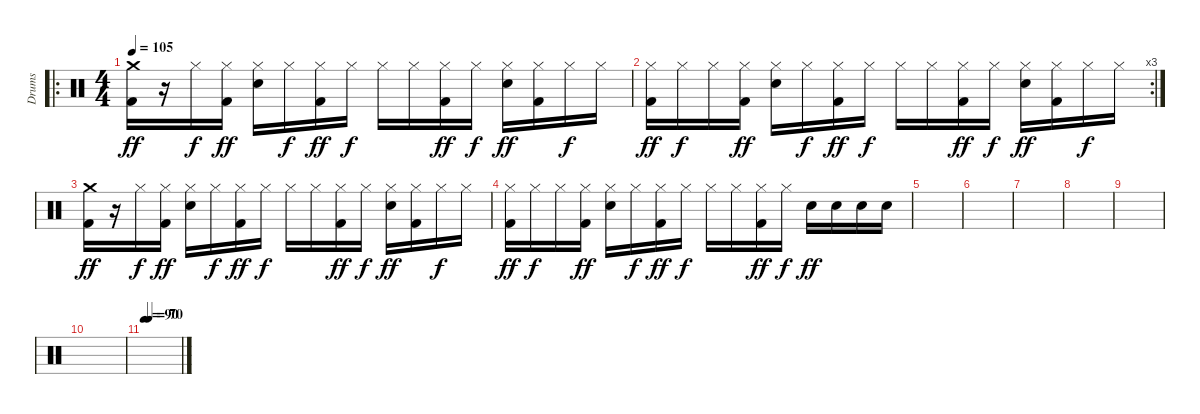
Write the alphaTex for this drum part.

\track ("Drums" "Drums") {instrument percussion}
\staff {score}
\articulation defaults
\ro
\ts (4 4)
\tempo 105
\clef neutral
\ks c
("Crash medium (hit)" "Kick (hit) 2").16{dy ff} r.16 "Hi-Hat (closed)".16{dy f} ("Hi-Hat (closed)" "Kick (hit) 2").16{dy ff} ("Hi-Hat (closed)" "Electric Snare (hit)").16 "Hi-Hat (closed)".16{dy f} ("Hi-Hat (closed)" "Kick (hit) 2").16{dy ff} "Hi-Hat (closed)".16{dy f} "Hi-Hat (closed)".16 "Hi-Hat (closed)".16 ("Hi-Hat (closed)" "Kick (hit) 2").16{dy ff} "Hi-Hat (closed)".16{dy f} ("Hi-Hat (closed)" "Electric Snare (hit)").16{dy ff} ("Hi-Hat (closed)" "Kick (hit) 2").16 "Hi-Hat (closed)".16{dy f} "Hi-Hat (closed)".16 |
\rc 3
("Hi-Hat (closed)" "Kick (hit) 2").16{dy ff} "Hi-Hat (closed)".16{dy f} "Hi-Hat (closed)".16 ("Hi-Hat (closed)" "Kick (hit) 2").16{dy ff} ("Hi-Hat (closed)" "Electric Snare (hit)").16 "Hi-Hat (closed)".16{dy f} ("Hi-Hat (closed)" "Kick (hit) 2").16{dy ff} "Hi-Hat (closed)".16{dy f} "Hi-Hat (closed)".16 "Hi-Hat (closed)".16 ("Hi-Hat (closed)" "Kick (hit) 2").16{dy ff} "Hi-Hat (closed)".16{dy f} ("Hi-Hat (closed)" "Electric Snare (hit)").16{dy ff} ("Hi-Hat (closed)" "Kick (hit) 2").16 "Hi-Hat (closed)".16{dy f} "Hi-Hat (closed)".16 |
("Crash medium (hit)" "Kick (hit) 2").16{dy ff} r.16 "Hi-Hat (closed)".16{dy f} ("Hi-Hat (closed)" "Kick (hit) 2").16{dy ff} ("Hi-Hat (closed)" "Electric Snare (hit)").16 "Hi-Hat (closed)".16{dy f} ("Hi-Hat (closed)" "Kick (hit) 2").16{dy ff} "Hi-Hat (closed)".16{dy f} "Hi-Hat (closed)".16 "Hi-Hat (closed)".16 ("Hi-Hat (closed)" "Kick (hit) 2").16{dy ff} "Hi-Hat (closed)".16{dy f} ("Hi-Hat (closed)" "Electric Snare (hit)").16{dy ff} ("Hi-Hat (closed)" "Kick (hit) 2").16 "Hi-Hat (closed)".16{dy f} "Hi-Hat (closed)".16 |
("Hi-Hat (closed)" "Kick (hit) 2").16{dy ff} "Hi-Hat (closed)".16{dy f} "Hi-Hat (closed)".16 ("Hi-Hat (closed)" "Kick (hit) 2").16{dy ff} ("Hi-Hat (closed)" "Electric Snare (hit)").16 "Hi-Hat (closed)".16{dy f} ("Hi-Hat (closed)" "Kick (hit) 2").16{dy ff} "Hi-Hat (closed)".16{dy f} "Hi-Hat (closed)".16 "Hi-Hat (closed)".16 ("Hi-Hat (closed)" "Kick (hit) 2").16{dy ff} "Hi-Hat (closed)".16{dy f} "Electric Snare (hit)".16{dy ff} "Electric Snare (hit)".16 "Electric Snare (hit)".16 "Electric Snare (hit)".16 |
|
|
|
|
|
|
\tempo 90
\tempo (70 0.125)
